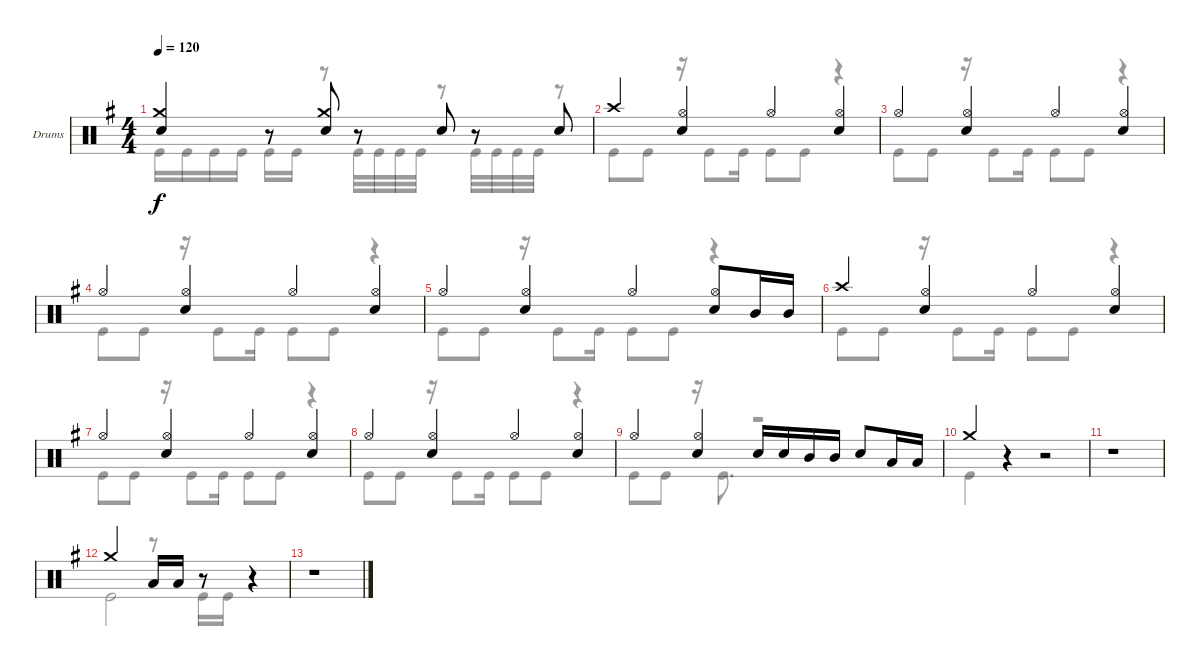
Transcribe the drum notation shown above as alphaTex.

\bracketExtendMode groupsimilarinstruments
\firstSystemTrackNameOrientation horizontal
\otherSystemsTrackNameOrientation horizontal
\track ("Drumkit" "Drums") {mute instrument percussion}
\staff {score}
\articulation defaults
\voice
\ts (4 4)
\tempo 120
\clef neutral
\ks eminor
("Crash medium (hit)" "Snare (hit) 2").4{dy f} r.8 ("Crash medium (hit)" "Snare (hit) 2").8 r.8 "Snare (hit) 2".8 r.8 "Snare (hit) 2".8 |
"Crash high (hit)".4 ("Hi-Hat (open)" "Snare (hit) 2").4 "Hi-Hat (open)".4 ("Hi-Hat (open)" "Snare (hit) 2").4 |
"Hi-Hat (open)".4 ("Hi-Hat (open)" "Snare (hit) 2").4 "Hi-Hat (open)".4 ("Hi-Hat (open)" "Snare (hit) 2").4 |
"Hi-Hat (open)".4 ("Hi-Hat (open)" "Snare (hit) 2").4 "Hi-Hat (open)".4 ("Hi-Hat (open)" "Snare (hit) 2").4 |
"Hi-Hat (open)".4 ("Hi-Hat (open)" "Snare (hit) 2").4 "Hi-Hat (open)".4 ("Hi-Hat (open)" "Snare (hit) 2").8 "Mid Tom (hit)".16 "Mid Tom (hit)".16 |
"Crash high (hit)".4 ("Hi-Hat (open)" "Snare (hit) 2").4 "Hi-Hat (open)".4 ("Hi-Hat (open)" "Snare (hit) 2").4 |
"Hi-Hat (open)".4 ("Hi-Hat (open)" "Snare (hit) 2").4 "Hi-Hat (open)".4 ("Hi-Hat (open)" "Snare (hit) 2").4 |
"Hi-Hat (open)".4 ("Hi-Hat (open)" "Snare (hit) 2").4 "Hi-Hat (open)".4 ("Hi-Hat (open)" "Snare (hit) 2").4 |
"Hi-Hat (open)".4 ("Hi-Hat (open)" "Snare (hit) 2").4 "Snare (hit) 2".16 "Snare (hit) 2".16 "Mid Tom (hit)".16 "Mid Tom (hit)".16 "Snare (hit) 2".8 "Low Tom (hit)".16 "Low Tom (hit)".16 |
"Crash medium (hit)".4 r.4 r.2 |
r.1 |
"Crash medium (hit)".2 "Low Tom (hit)".16 "Low Tom (hit)".16 r.8 r.4 |
r.1
\voice
\clef neutral
\ottava regular
\simile none
\ks eminor "Kick (hit)".16{dy f} "Kick (hit)".16 "Kick (hit)".16 "Kick (hit)".16 "Kick (hit)".16 "Kick (hit)".16
r.8 "Kick (hit)".32 "Kick (hit)".32 "Kick (hit)".32 "Kick (hit)".32 r.8 "Kick (hit)".32 "Kick (hit)".32 "Kick (hit)".32 "Kick (hit)".32 r.8 |
"Kick (hit)".8 "Kick (hit)".8 r.16 "Kick (hit)".8 "Kick (hit)".16 "Kick (hit)".8 "Kick (hit)".8 r.4 |
"Kick (hit)".8 "Kick (hit)".8 r.16 "Kick (hit)".8 "Kick (hit)".16 "Kick (hit)".8 "Kick (hit)".8 r.4 |
"Kick (hit)".8 "Kick (hit)".8 r.16 "Kick (hit)".8 "Kick (hit)".16 "Kick (hit)".8 "Kick (hit)".8 r.4 |
"Kick (hit)".8 "Kick (hit)".8 r.16 "Kick (hit)".8 "Kick (hit)".16 "Kick (hit)".8 "Kick (hit)".8 r.4 |
"Kick (hit)".8 "Kick (hit)".8 r.16 "Kick (hit)".8 "Kick (hit)".16 "Kick (hit)".8 "Kick (hit)".8 r.4 |
"Kick (hit)".8 "Kick (hit)".8 r.16 "Kick (hit)".8 "Kick (hit)".16 "Kick (hit)".8 "Kick (hit)".8 r.4 |
"Kick (hit)".8 "Kick (hit)".8 r.16 "Kick (hit)".8 "Kick (hit)".16 "Kick (hit)".8 "Kick (hit)".8 r.4 |
"Kick (hit)".8 "Kick (hit)".8 r.16 "Kick (hit)".8{d} r.2 |
"Kick (hit)".4 r.4 r.2 |
r.1 |
"Kick (hit)".2 r.8 "Kick (hit)".16 "Kick (hit)".16 r.4 |
r.1
